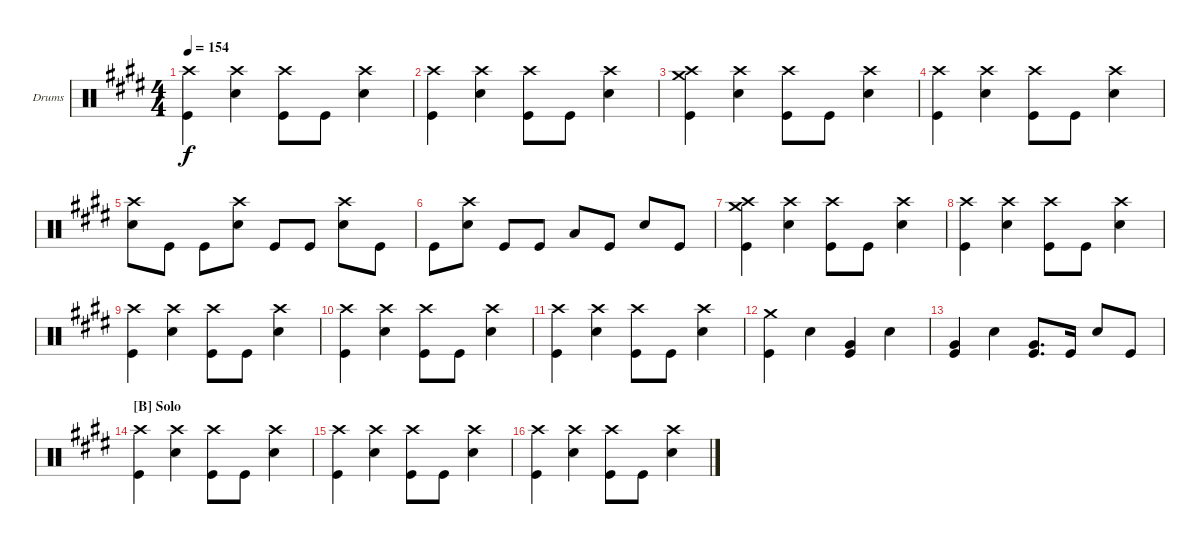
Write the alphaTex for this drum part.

\defaultSystemsLayout 4
\bracketExtendMode groupsimilarinstruments
\firstSystemTrackNameOrientation horizontal
\otherSystemsTrackNameOrientation horizontal
\track ("Jon Larsen" "Drums") {instrument percussion}
\staff {score}
\articulation defaults
\ts (4 4)
\tempo 154
\clef neutral
\scale
0.333333
\ks e
("Crash high (hit)" "Kick (hit)").4{dy f} ("Crash high (hit)" "Snare (hit) 2").4 ("Crash high (hit)" "Kick (hit)").8 "Kick (hit)".8 ("Crash high (hit)" "Snare (hit) 2").4 |
\scale
0.333333 ("Crash high (hit)" "Kick (hit)").4 ("Crash high (hit)" "Snare (hit) 2").4 ("Crash high (hit)" "Kick (hit)").8 "Kick (hit)".8 ("Crash high (hit)" "Snare (hit) 2").4 |
\scale
0.333333 ("Crash medium (hit)" "Crash high (hit)" "Kick (hit)").4 ("Crash high (hit)" "Snare (hit) 2").4 ("Crash high (hit)" "Kick (hit)").8 "Kick (hit)".8 ("Crash high (hit)" "Snare (hit) 2").4 |
\scale
0.333333 ("Crash high (hit)" "Kick (hit)").4 ("Crash high (hit)" "Snare (hit) 2").4 ("Crash high (hit)" "Kick (hit)").8 "Kick (hit)".8 ("Crash high (hit)" "Snare (hit) 2").4 |
\scale
0.333333 ("Crash high (hit)" "Snare (hit) 2").8 "Kick (hit)".8 "Kick (hit)".8 ("Crash high (hit)" "Snare (hit) 2").8 "Kick (hit)".8 "Kick (hit)".8 ("Crash high (hit)" "Snare (hit) 2").8 "Kick (hit)".8 |
\scale
0.333333 "Kick (hit)".8 ("Crash high (hit)" "Snare (hit) 2").8 "Kick (hit)".8 "Kick (hit)".8 "Low Tom (hit)".8 "Kick (hit)".8 "Snare (hit) 2".8 "Kick (hit)".8 |
\scale
0.333333 ("Crash medium (hit)" "Crash high (hit)" "Kick (hit)").4 ("Crash high (hit)" "Snare (hit) 2").4 ("Crash high (hit)" "Kick (hit)").8 "Kick (hit)".8 ("Crash high (hit)" "Snare (hit) 2").4 |
\scale
0.333333 ("Crash high (hit)" "Kick (hit)").4 ("Crash high (hit)" "Snare (hit) 2").4 ("Crash high (hit)" "Kick (hit)").8 "Kick (hit)".8 ("Crash high (hit)" "Snare (hit) 2").4 |
\scale
0.333333 ("Crash high (hit)" "Kick (hit)").4 ("Crash high (hit)" "Snare (hit) 2").4 ("Crash high (hit)" "Kick (hit)").8 "Kick (hit)".8 ("Crash high (hit)" "Snare (hit) 2").4 |
\scale
0.333333 ("Crash high (hit)" "Kick (hit)").4 ("Crash high (hit)" "Snare (hit) 2").4 ("Crash high (hit)" "Kick (hit)").8 "Kick (hit)".8 ("Crash high (hit)" "Snare (hit) 2").4 |
\scale
0.333333 ("Crash high (hit)" "Kick (hit)").4 ("Crash high (hit)" "Snare (hit) 2").4 ("Crash high (hit)" "Kick (hit)").8 "Kick (hit)".8 ("Crash high (hit)" "Snare (hit) 2").4 |
\scale
0.333333 ("Crash medium (hit)" "Kick (hit)").4 "Snare (hit) 2".4 ("Very Low Tom (hit)" "Kick (hit)").4 "Snare (hit) 2".4 |
\scale
0.333333 ("Very Low Tom (hit)" "Kick (hit)").4 "Snare (hit) 2".4 ("Very Low Tom (hit)" "Kick (hit)").8{d} "Kick (hit)".16 "Snare (hit) 2".8 "Kick (hit)".8 |
\section ("B" "Solo")
\scale
0.333333 ("Crash high (hit)" "Kick (hit)").4 ("Crash high (hit)" "Snare (hit) 2").4 ("Crash high (hit)" "Kick (hit)").8 "Kick (hit)".8 ("Crash high (hit)" "Snare (hit) 2").4 |
\scale
0.333333 ("Crash high (hit)" "Kick (hit)").4 ("Crash high (hit)" "Snare (hit) 2").4 ("Crash high (hit)" "Kick (hit)").8 "Kick (hit)".8 ("Crash high (hit)" "Snare (hit) 2").4 |
\scale
0.333333 ("Crash high (hit)" "Kick (hit)").4 ("Crash high (hit)" "Snare (hit) 2").4 ("Crash high (hit)" "Kick (hit)").8 "Kick (hit)".8 ("Crash high (hit)" "Snare (hit) 2").4
